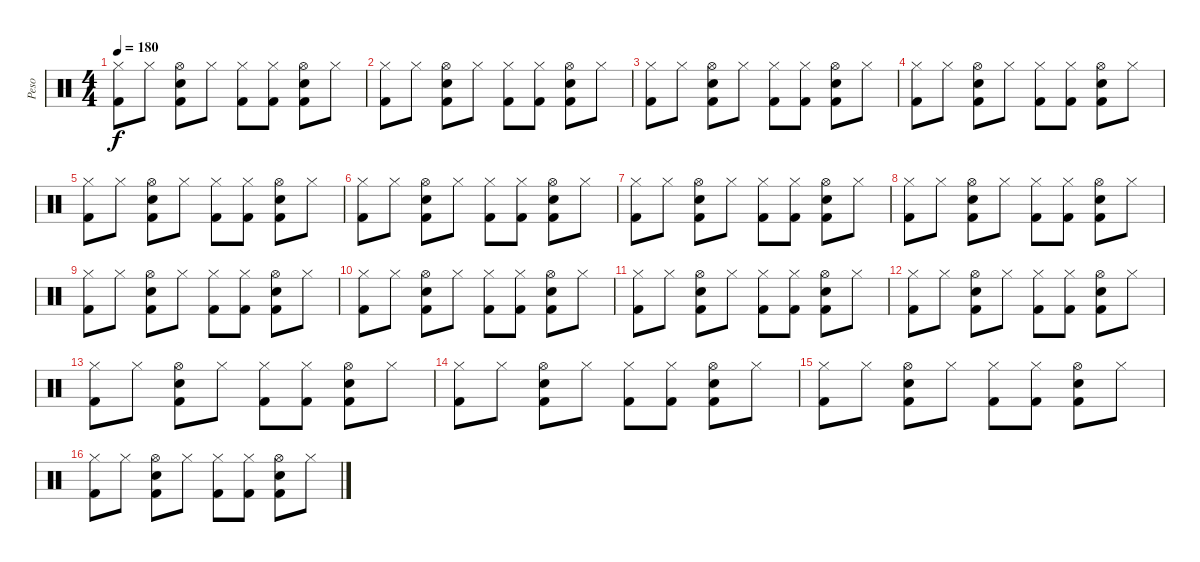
\track ("Peso" "Peso") {instrument percussion}
\staff {score}
\articulation defaults
\ts (4 4)
\tempo 180
\clef neutral
\ks c
("Hi-Hat (closed)" "Kick (hit) 2").8{dy f} "Hi-Hat (closed)".8 ("Hi-Hat (open)" "Electric Snare (hit)" "Kick (hit) 2").8 "Hi-Hat (closed)".8 ("Hi-Hat (closed)" "Kick (hit) 2").8 ("Hi-Hat (closed)" "Kick (hit) 2").8 ("Hi-Hat (open)" "Electric Snare (hit)" "Kick (hit) 2").8 "Hi-Hat (closed)".8 |
("Hi-Hat (closed)" "Kick (hit) 2").8 "Hi-Hat (closed)".8 ("Hi-Hat (open)" "Electric Snare (hit)" "Kick (hit) 2").8 "Hi-Hat (closed)".8 ("Hi-Hat (closed)" "Kick (hit) 2").8 ("Hi-Hat (closed)" "Kick (hit) 2").8 ("Hi-Hat (open)" "Electric Snare (hit)" "Kick (hit) 2").8 "Hi-Hat (closed)".8 |
("Hi-Hat (closed)" "Kick (hit) 2").8 "Hi-Hat (closed)".8 ("Hi-Hat (open)" "Electric Snare (hit)" "Kick (hit) 2").8 "Hi-Hat (closed)".8 ("Hi-Hat (closed)" "Kick (hit) 2").8 ("Hi-Hat (closed)" "Kick (hit) 2").8 ("Hi-Hat (open)" "Electric Snare (hit)" "Kick (hit) 2").8 "Hi-Hat (closed)".8 |
("Hi-Hat (closed)" "Kick (hit) 2").8 "Hi-Hat (closed)".8 ("Hi-Hat (open)" "Electric Snare (hit)" "Kick (hit) 2").8 "Hi-Hat (closed)".8 ("Hi-Hat (closed)" "Kick (hit) 2").8 ("Hi-Hat (closed)" "Kick (hit) 2").8 ("Hi-Hat (open)" "Electric Snare (hit)" "Kick (hit) 2").8 "Hi-Hat (closed)".8 |
("Hi-Hat (closed)" "Kick (hit) 2").8 "Hi-Hat (closed)".8 ("Hi-Hat (open)" "Electric Snare (hit)" "Kick (hit) 2").8 "Hi-Hat (closed)".8 ("Hi-Hat (closed)" "Kick (hit) 2").8 ("Hi-Hat (closed)" "Kick (hit) 2").8 ("Hi-Hat (open)" "Electric Snare (hit)" "Kick (hit) 2").8 "Hi-Hat (closed)".8 |
("Hi-Hat (closed)" "Kick (hit) 2").8 "Hi-Hat (closed)".8 ("Hi-Hat (open)" "Electric Snare (hit)" "Kick (hit) 2").8 "Hi-Hat (closed)".8 ("Hi-Hat (closed)" "Kick (hit) 2").8 ("Hi-Hat (closed)" "Kick (hit) 2").8 ("Hi-Hat (open)" "Electric Snare (hit)" "Kick (hit) 2").8 "Hi-Hat (closed)".8 |
("Hi-Hat (closed)" "Kick (hit) 2").8 "Hi-Hat (closed)".8 ("Hi-Hat (open)" "Electric Snare (hit)" "Kick (hit) 2").8 "Hi-Hat (closed)".8 ("Hi-Hat (closed)" "Kick (hit) 2").8 ("Hi-Hat (closed)" "Kick (hit) 2").8 ("Hi-Hat (open)" "Electric Snare (hit)" "Kick (hit) 2").8 "Hi-Hat (closed)".8 |
("Hi-Hat (closed)" "Kick (hit) 2").8 "Hi-Hat (closed)".8 ("Hi-Hat (open)" "Electric Snare (hit)" "Kick (hit) 2").8 "Hi-Hat (closed)".8 ("Hi-Hat (closed)" "Kick (hit) 2").8 ("Hi-Hat (closed)" "Kick (hit) 2").8 ("Hi-Hat (open)" "Electric Snare (hit)" "Kick (hit) 2").8 "Hi-Hat (closed)".8 |
("Hi-Hat (closed)" "Kick (hit) 2").8 "Hi-Hat (closed)".8 ("Hi-Hat (open)" "Electric Snare (hit)" "Kick (hit) 2").8 "Hi-Hat (closed)".8 ("Hi-Hat (closed)" "Kick (hit) 2").8 ("Hi-Hat (closed)" "Kick (hit) 2").8 ("Hi-Hat (open)" "Electric Snare (hit)" "Kick (hit) 2").8 "Hi-Hat (closed)".8 |
("Hi-Hat (closed)" "Kick (hit) 2").8 "Hi-Hat (closed)".8 ("Hi-Hat (open)" "Electric Snare (hit)" "Kick (hit) 2").8 "Hi-Hat (closed)".8 ("Hi-Hat (closed)" "Kick (hit) 2").8 ("Hi-Hat (closed)" "Kick (hit) 2").8 ("Hi-Hat (open)" "Electric Snare (hit)" "Kick (hit) 2").8 "Hi-Hat (closed)".8 |
("Hi-Hat (closed)" "Kick (hit) 2").8 "Hi-Hat (closed)".8 ("Hi-Hat (open)" "Electric Snare (hit)" "Kick (hit) 2").8 "Hi-Hat (closed)".8 ("Hi-Hat (closed)" "Kick (hit) 2").8 ("Hi-Hat (closed)" "Kick (hit) 2").8 ("Hi-Hat (open)" "Electric Snare (hit)" "Kick (hit) 2").8 "Hi-Hat (closed)".8 |
("Hi-Hat (closed)" "Kick (hit) 2").8 "Hi-Hat (closed)".8 ("Hi-Hat (open)" "Electric Snare (hit)" "Kick (hit) 2").8 "Hi-Hat (closed)".8 ("Hi-Hat (closed)" "Kick (hit) 2").8 ("Hi-Hat (closed)" "Kick (hit) 2").8 ("Hi-Hat (open)" "Electric Snare (hit)" "Kick (hit) 2").8 "Hi-Hat (closed)".8 |
("Hi-Hat (closed)" "Kick (hit) 2").8 "Hi-Hat (closed)".8 ("Hi-Hat (open)" "Electric Snare (hit)" "Kick (hit) 2").8 "Hi-Hat (closed)".8 ("Hi-Hat (closed)" "Kick (hit) 2").8 ("Hi-Hat (closed)" "Kick (hit) 2").8 ("Hi-Hat (open)" "Electric Snare (hit)" "Kick (hit) 2").8 "Hi-Hat (closed)".8 |
("Hi-Hat (closed)" "Kick (hit) 2").8 "Hi-Hat (closed)".8 ("Hi-Hat (open)" "Electric Snare (hit)" "Kick (hit) 2").8 "Hi-Hat (closed)".8 ("Hi-Hat (closed)" "Kick (hit) 2").8 ("Hi-Hat (closed)" "Kick (hit) 2").8 ("Hi-Hat (open)" "Electric Snare (hit)" "Kick (hit) 2").8 "Hi-Hat (closed)".8 |
("Hi-Hat (closed)" "Kick (hit) 2").8 "Hi-Hat (closed)".8 ("Hi-Hat (open)" "Electric Snare (hit)" "Kick (hit) 2").8 "Hi-Hat (closed)".8 ("Hi-Hat (closed)" "Kick (hit) 2").8 ("Hi-Hat (closed)" "Kick (hit) 2").8 ("Hi-Hat (open)" "Electric Snare (hit)" "Kick (hit) 2").8 "Hi-Hat (closed)".8 |
("Hi-Hat (closed)" "Kick (hit) 2").8 "Hi-Hat (closed)".8 ("Hi-Hat (open)" "Electric Snare (hit)" "Kick (hit) 2").8 "Hi-Hat (closed)".8 ("Hi-Hat (closed)" "Kick (hit) 2").8 ("Hi-Hat (closed)" "Kick (hit) 2").8 ("Hi-Hat (open)" "Electric Snare (hit)" "Kick (hit) 2").8 "Hi-Hat (closed)".8
